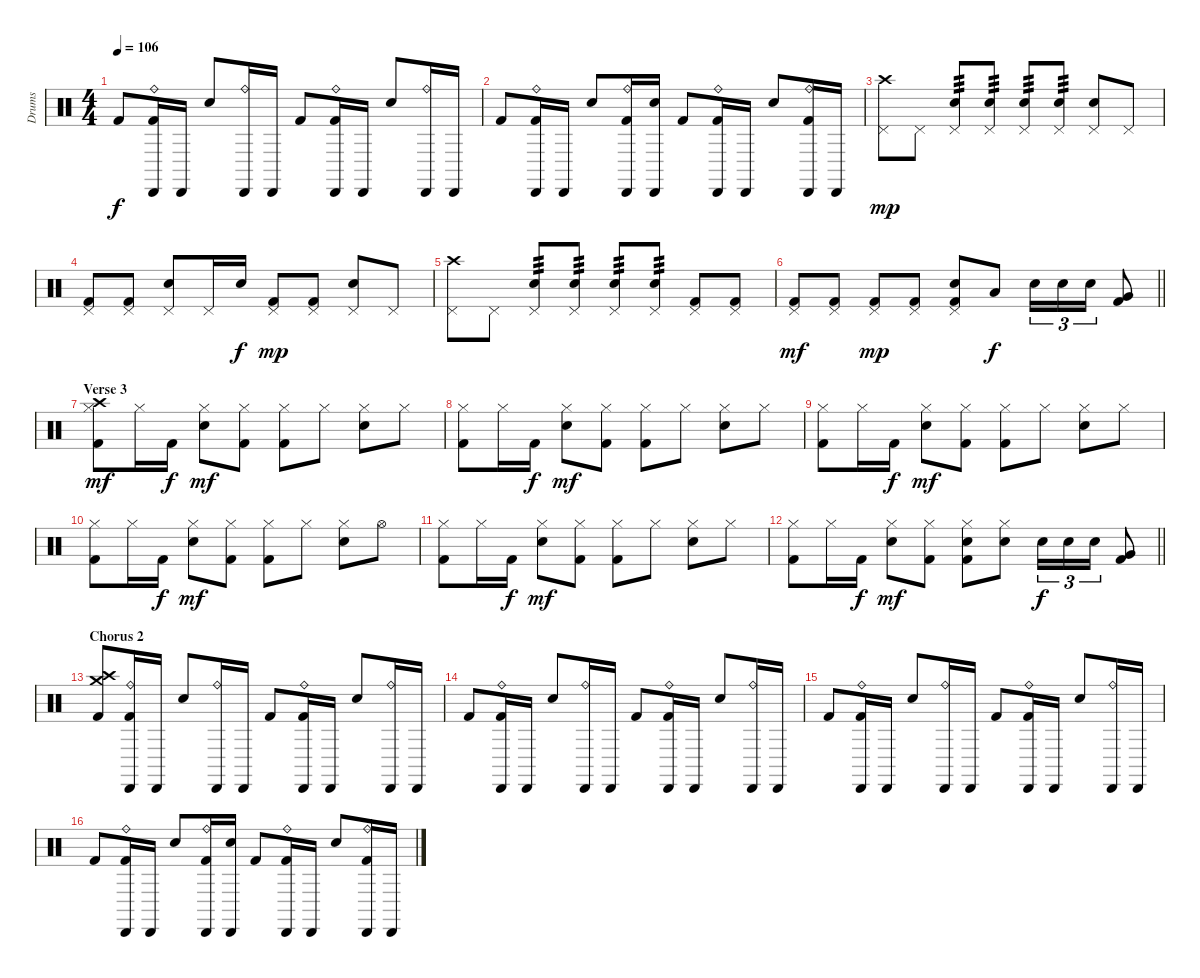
\track ("Drums" "Drums") {instrument percussion}
\staff {score}
\articulation defaults
\ts (4 4)
\tempo 106
\clef neutral
\ks c "Kick (hit) 2".8{dy f}
("Ride (bell)" "Cabasa (hit)" "Kick (hit) 2").16 "Cabasa (hit)".16 "Snare (hit) 2".8 ("Ride (bell)" "Cabasa (hit)").16 "Cabasa (hit)".16 "Kick (hit) 2".8 ("Ride (bell)" "Cabasa (hit)" "Kick (hit) 2").16 "Cabasa (hit)".16 "Snare (hit) 2".8 ("Ride (bell)" "Cabasa (hit)").16 "Cabasa (hit)".16 |
"Kick (hit) 2".8 ("Ride (bell)" "Cabasa (hit)" "Kick (hit) 2").16 "Cabasa (hit)".16 "Snare (hit) 2".8 ("Ride (bell)" "Cabasa (hit)" "Kick (hit) 2").16 ("Cabasa (hit)" "Snare (hit) 2").16 "Kick (hit) 2".8 ("Ride (bell)" "Cabasa (hit)" "Kick (hit) 2").16 "Cabasa (hit)".16 "Snare (hit) 2".8 ("Ride (bell)" "Cabasa (hit)" "Kick (hit) 2").16 "Cabasa (hit)".16 |
("Crash high (hit)" "Pedal Hi-Hat (hit)").8{dy mp} "Pedal Hi-Hat (hit)".8 ("Snare (hit) 2" "Pedal Hi-Hat (hit)").8{tp 3} ("Snare (hit) 2" "Pedal Hi-Hat (hit)").8{tp 3} ("Snare (hit) 2" "Pedal Hi-Hat (hit)").8{tp 3} ("Snare (hit) 2" "Pedal Hi-Hat (hit)").8{tp 3} ("Snare (hit) 2" "Pedal Hi-Hat (hit)").8 "Pedal Hi-Hat (hit)".8 |
("Pedal Hi-Hat (hit)" "Kick (hit) 2").8 ("Pedal Hi-Hat (hit)" "Kick (hit) 2").8 ("Snare (hit) 2" "Pedal Hi-Hat (hit)").8 "Pedal Hi-Hat (hit)".16 "Snare (hit) 2".16{dy f} ("Pedal Hi-Hat (hit)" "Kick (hit) 2").8{dy mp} ("Pedal Hi-Hat (hit)" "Kick (hit) 2").8 ("Snare (hit) 2" "Pedal Hi-Hat (hit)").8 "Pedal Hi-Hat (hit)".8 |
("Crash high (hit)" "Pedal Hi-Hat (hit)").8 "Pedal Hi-Hat (hit)".8 ("Snare (hit) 2" "Pedal Hi-Hat (hit)").8{tp 3} ("Snare (hit) 2" "Pedal Hi-Hat (hit)").8{tp 3} ("Snare (hit) 2" "Pedal Hi-Hat (hit)").8{tp 3} ("Snare (hit) 2" "Pedal Hi-Hat (hit)").8{tp 3} ("Pedal Hi-Hat (hit)" "Kick (hit) 2").8 ("Pedal Hi-Hat (hit)" "Kick (hit) 2").8 |
\barLineRight lightlight
("Pedal Hi-Hat (hit)" "Kick (hit) 2").8{dy mf} ("Pedal Hi-Hat (hit)" "Kick (hit) 2").8 ("Pedal Hi-Hat (hit)" "Kick (hit) 2").8{dy mp} ("Pedal Hi-Hat (hit)" "Kick (hit) 2").8 ("Snare (hit) 2" "Pedal Hi-Hat (hit)" "Kick (hit) 2").8 "Low Tom (hit)".8{dy f} "Snare (hit) 2".16{tu (3 2)} "Snare (hit) 2".16{tu (3 2)} "Electric Snare (hit)".16{tu (3 2)} ("Very Low Tom (hit)" "Kick (hit) 2").8 |
\section ("" "Verse 3")
("Crash high (hit)" "Hi-Hat (closed)" "Kick (hit) 2").8{dy mf} "Hi-Hat (closed)".16 "Kick (hit) 2".16{dy f} ("Hi-Hat (closed)" "Snare (hit) 2").8{dy mf} ("Hi-Hat (closed)" "Kick (hit) 2").8 ("Hi-Hat (closed)" "Kick (hit) 2").8 "Hi-Hat (closed)".8 ("Hi-Hat (closed)" "Snare (hit) 2").8 "Hi-Hat (closed)".8 |
("Hi-Hat (closed)" "Kick (hit) 2").8 "Hi-Hat (closed)".16 "Kick (hit) 2".16{dy f} ("Hi-Hat (closed)" "Snare (hit) 2").8{dy mf} ("Hi-Hat (closed)" "Kick (hit) 2").8 ("Hi-Hat (closed)" "Kick (hit) 2").8 "Hi-Hat (closed)".8 ("Hi-Hat (closed)" "Snare (hit) 2").8 "Hi-Hat (closed)".8 |
("Hi-Hat (closed)" "Kick (hit) 2").8 "Hi-Hat (closed)".16 "Kick (hit) 2".16{dy f} ("Hi-Hat (closed)" "Snare (hit) 2").8{dy mf} ("Hi-Hat (closed)" "Kick (hit) 2").8 ("Hi-Hat (closed)" "Kick (hit) 2").8 "Hi-Hat (closed)".8 ("Hi-Hat (closed)" "Snare (hit) 2").8 "Hi-Hat (closed)".8 |
("Hi-Hat (closed)" "Kick (hit) 2").8 "Hi-Hat (closed)".16 "Kick (hit) 2".16{dy f} ("Hi-Hat (closed)" "Snare (hit) 2").8{dy mf} ("Hi-Hat (closed)" "Kick (hit) 2").8 ("Hi-Hat (closed)" "Kick (hit) 2").8 "Hi-Hat (closed)".8 ("Hi-Hat (closed)" "Snare (hit) 2").8 "Hi-Hat (open)".8 |
("Hi-Hat (closed)" "Kick (hit) 2").8 "Hi-Hat (closed)".16 "Kick (hit) 2".16{dy f} ("Hi-Hat (closed)" "Snare (hit) 2").8{dy mf} ("Hi-Hat (closed)" "Kick (hit) 2").8 ("Hi-Hat (closed)" "Kick (hit) 2").8 "Hi-Hat (closed)".8 ("Hi-Hat (closed)" "Snare (hit) 2").8 "Hi-Hat (closed)".8 |
\barLineRight lightlight
("Hi-Hat (closed)" "Kick (hit) 2").8 "Hi-Hat (closed)".16 "Kick (hit) 2".16{dy f} ("Hi-Hat (closed)" "Snare (hit) 2").8{dy mf} ("Hi-Hat (closed)" "Kick (hit) 2").8 ("Hi-Hat (closed)" "Snare (hit) 2" "Kick (hit) 2").8 ("Hi-Hat (closed)" "Snare (hit) 2").8 "Snare (hit) 2".16{tu (3 2) dy f} "Snare (hit) 2".16{tu (3 2)} "Electric Snare (hit)".16{tu (3 2)} ("Very Low Tom (hit)" "Kick (hit) 2").8 |
\section ("" "Chorus 2")
("Crash high (hit)" "Crash medium (hit)" "Kick (hit) 2").8 ("Ride (bell)" "Cabasa (hit)" "Kick (hit) 2").16 "Cabasa (hit)".16 "Snare (hit) 2".8 ("Ride (bell)" "Cabasa (hit)").16 "Cabasa (hit)".16 "Kick (hit) 2".8 ("Ride (bell)" "Cabasa (hit)" "Kick (hit) 2").16 "Cabasa (hit)".16 "Snare (hit) 2".8 ("Ride (bell)" "Cabasa (hit)").16 "Cabasa (hit)".16 |
"Kick (hit) 2".8 ("Ride (bell)" "Cabasa (hit)" "Kick (hit) 2").16 "Cabasa (hit)".16 "Snare (hit) 2".8 ("Ride (bell)" "Cabasa (hit)").16 "Cabasa (hit)".16 "Kick (hit) 2".8 ("Ride (bell)" "Cabasa (hit)" "Kick (hit) 2").16 "Cabasa (hit)".16 "Snare (hit) 2".8 ("Ride (bell)" "Cabasa (hit)").16 "Cabasa (hit)".16 |
"Kick (hit) 2".8 ("Ride (bell)" "Cabasa (hit)" "Kick (hit) 2").16 "Cabasa (hit)".16 "Snare (hit) 2".8 ("Ride (bell)" "Cabasa (hit)").16 "Cabasa (hit)".16 "Kick (hit) 2".8 ("Ride (bell)" "Cabasa (hit)" "Kick (hit) 2").16 "Cabasa (hit)".16 "Snare (hit) 2".8 ("Ride (bell)" "Cabasa (hit)").16 "Cabasa (hit)".16 |
"Kick (hit) 2".8 ("Ride (bell)" "Cabasa (hit)" "Kick (hit) 2").16 "Cabasa (hit)".16 "Snare (hit) 2".8 ("Ride (bell)" "Cabasa (hit)" "Kick (hit) 2").16 ("Cabasa (hit)" "Snare (hit) 2").16 "Kick (hit) 2".8 ("Ride (bell)" "Cabasa (hit)" "Kick (hit) 2").16 "Cabasa (hit)".16 "Snare (hit) 2".8 ("Ride (bell)" "Cabasa (hit)" "Kick (hit) 2").16 "Cabasa (hit)".16
